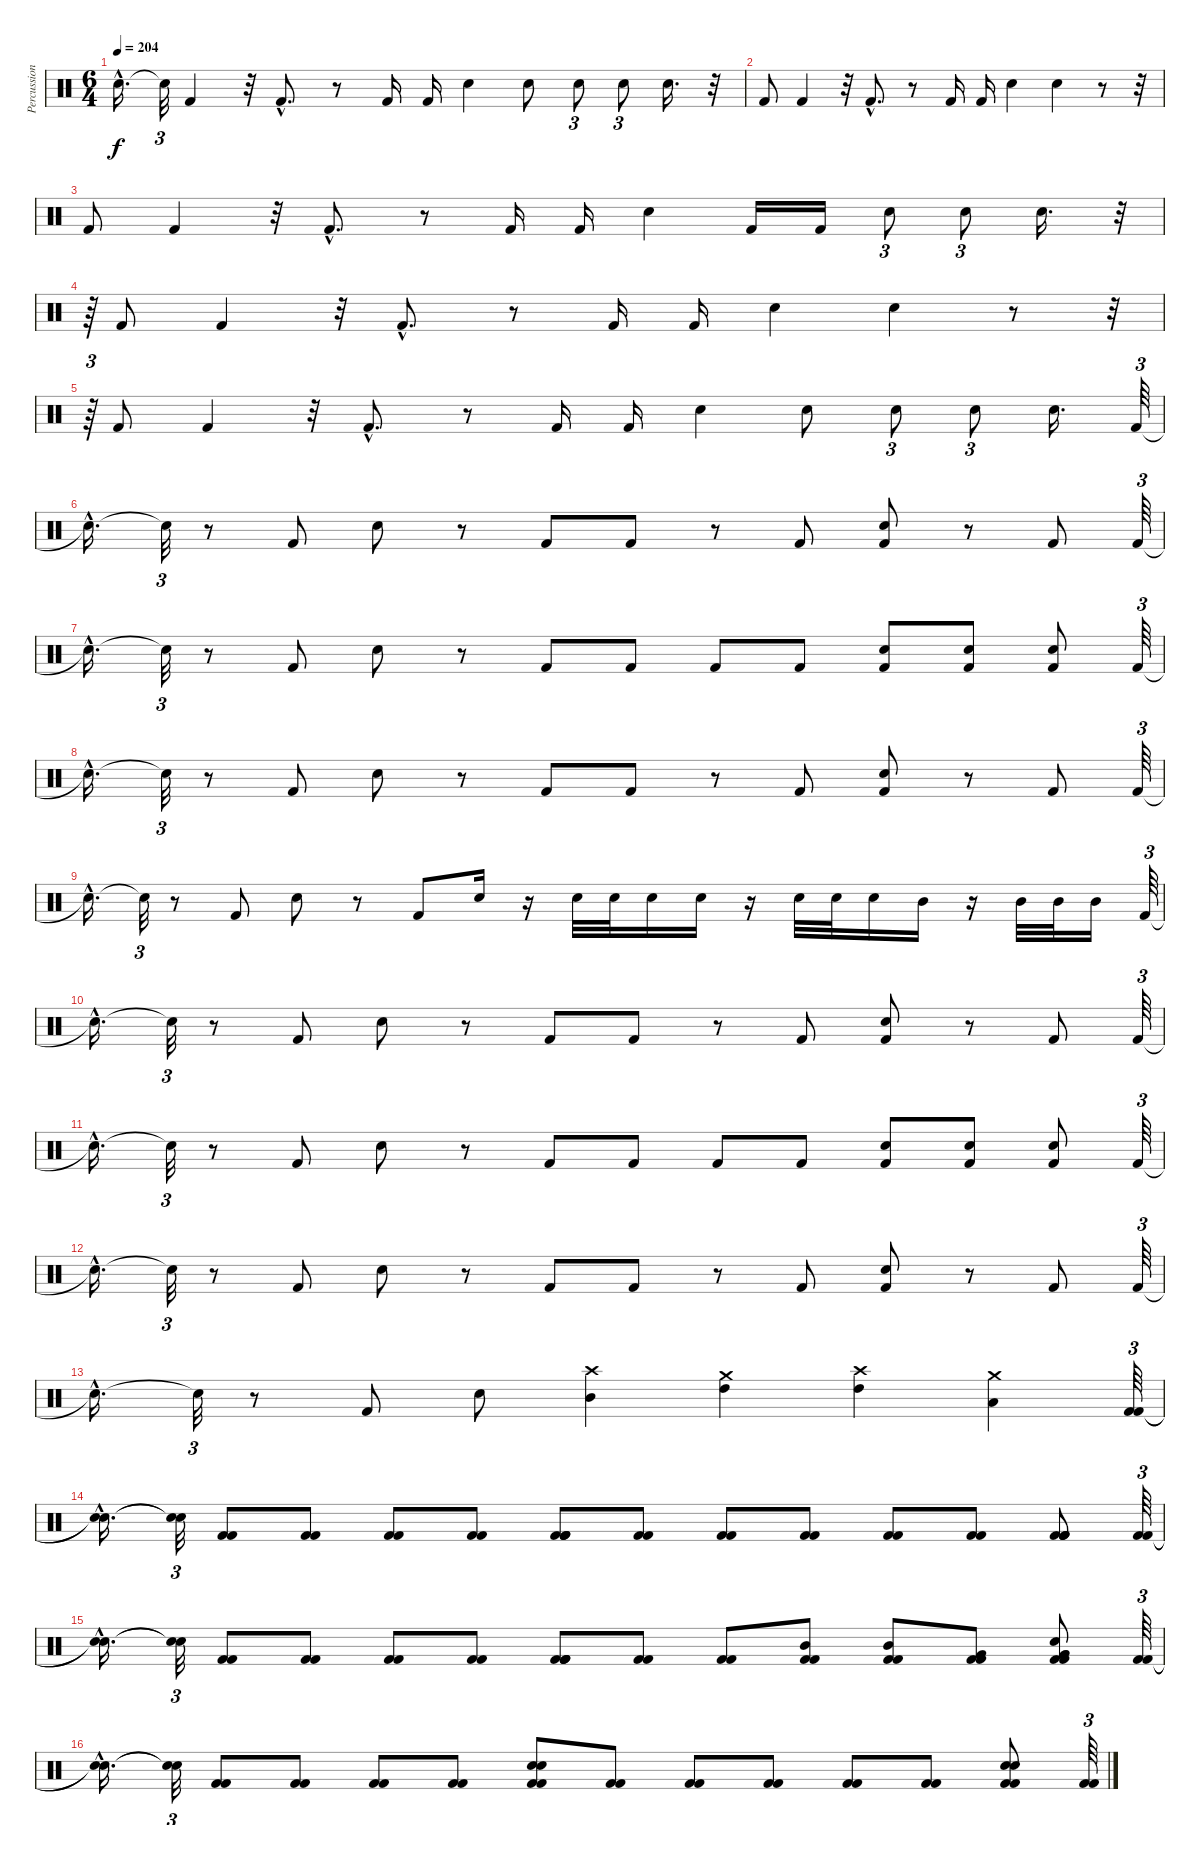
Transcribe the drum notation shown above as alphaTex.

\track ("Percussions" "Percussion") {instrument percussion}
\staff {score}
\articulation defaults
\ts (6 4)
\tempo 204
\clef neutral
\ks c "Snare (hit)"{hac t}.16{d dy f} "Snare (hit)"{t}.32{tu (3 2)} "Kick (hit) 2".4
r.32 "Kick (hit) 2"{hac}.8{d} r.8 "Kick (hit) 2".16 "Kick (hit) 2".16 "Electric Snare (hit)".4 "Electric Snare (hit)".8 "Electric Snare (hit)".8{tu (3 2)} "Electric Snare (hit)".8{tu (3 2)} "Electric Snare (hit)".16{d} r.32 |
"Kick (hit) 2".8 "Kick (hit) 2".4 r.32 "Kick (hit) 2"{hac}.8{d} r.8 "Kick (hit) 2".16 "Kick (hit) 2".16 "Electric Snare (hit)".4 "Electric Snare (hit)".4 r.8 r.32 |
"Kick (hit) 2".8 "Kick (hit) 2".4 r.32 "Kick (hit) 2"{hac}.8{d} r.8 "Kick (hit) 2".16 "Kick (hit) 2".16 "Electric Snare (hit)".4 "Kick (hit) 2".16 "Kick (hit) 2".16 "Electric Snare (hit)".8{tu (3 2)} "Electric Snare (hit)".8{tu (3 2)} "Electric Snare (hit)".16{d} r.32{tu (3 2)} |
r.64{tu (3 2)} "Kick (hit) 2".8 "Kick (hit) 2".4 r.32 "Kick (hit) 2"{hac}.8{d} r.8 "Kick (hit) 2".16 "Kick (hit) 2".16 "Electric Snare (hit)".4 "Electric Snare (hit)".4 r.8 r.32{tu (3 2)} |
r.64{tu (3 2)} "Kick (hit) 2".8 "Kick (hit) 2".4 r.32 "Kick (hit) 2"{hac}.8{d} r.8 "Kick (hit) 2".16 "Kick (hit) 2".16 "Electric Snare (hit)".4 "Electric Snare (hit)".8 "Electric Snare (hit)".8{tu (3 2)} "Electric Snare (hit)".8{tu (3 2)} "Electric Snare (hit)".16{d} "Kick (hit) 2".64{tu (3 2)} |
"Snare (hit)"{hac t}.16{d} "Snare (hit)"{t}.32{tu (3 2)} r.8 "Kick (hit) 2".8 "Electric Snare (hit)".8 r.8 "Kick (hit) 2".8 "Kick (hit) 2".8 r.8 "Kick (hit) 2".8 ("Electric Snare (hit)" "Kick (hit) 2").8 r.8 "Kick (hit) 2".8 "Kick (hit) 2".64{tu (3 2)} |
"Snare (hit)"{hac t}.16{d} "Snare (hit)"{t}.32{tu (3 2)} r.8 "Kick (hit) 2".8 "Electric Snare (hit)".8 r.8 "Kick (hit) 2".8 "Kick (hit) 2".8 "Kick (hit) 2".8 "Kick (hit) 2".8 ("Electric Snare (hit)" "Kick (hit) 2").8 ("Electric Snare (hit)" "Kick (hit) 2").8 ("Electric Snare (hit)" "Kick (hit) 2").8 "Kick (hit) 2".64{tu (3 2)} |
"Snare (hit)"{hac t}.16{d} "Snare (hit)"{t}.32{tu (3 2)} r.8 "Kick (hit) 2".8 "Electric Snare (hit)".8 r.8 "Kick (hit) 2".8 "Kick (hit) 2".8 r.8 "Kick (hit) 2".8 ("Electric Snare (hit)" "Kick (hit) 2").8 r.8 "Kick (hit) 2".8 "Kick (hit) 2".64{tu (3 2)} |
"Snare (hit)"{hac t}.16{d} "Snare (hit)"{t}.32{tu (3 2)} r.8 "Kick (hit) 2".8 "Electric Snare (hit)".8 r.8 "Kick (hit) 2".8 "Electric Snare (hit)".16 r.16 "Electric Snare (hit)".32 "Electric Snare (hit)".32 "Electric Snare (hit)".16 "Snare (hit) 2".16 r.16 "Snare (hit) 2".32 "Snare (hit) 2".32 "Snare (hit) 2".16 "Mid Tom (hit)".16 r.16 "Mid Tom (hit)".32 "Mid Tom (hit)".32 "Mid Tom (hit)".16 "Kick (hit) 2".64{tu (3 2)} |
"Snare (hit)"{hac t}.16{d} "Snare (hit)"{t}.32{tu (3 2)} r.8 "Kick (hit) 2".8 "Electric Snare (hit)".8 r.8 "Kick (hit) 2".8 "Kick (hit) 2".8 r.8 "Kick (hit) 2".8 ("Electric Snare (hit)" "Kick (hit) 2").8 r.8 "Kick (hit) 2".8 "Kick (hit) 2".64{tu (3 2)} |
"Snare (hit)"{hac t}.16{d} "Snare (hit)"{t}.32{tu (3 2)} r.8 "Kick (hit) 2".8 "Electric Snare (hit)".8 r.8 "Kick (hit) 2".8 "Kick (hit) 2".8 "Kick (hit) 2".8 "Kick (hit) 2".8 ("Electric Snare (hit)" "Kick (hit) 2").8 ("Electric Snare (hit)" "Kick (hit) 2").8 ("Electric Snare (hit)" "Kick (hit) 2").8 "Kick (hit) 2".64{tu (3 2)} |
"Snare (hit)"{hac t}.16{d} "Snare (hit)"{t}.32{tu (3 2)} r.8 "Kick (hit) 2".8 "Electric Snare (hit)".8 r.8 "Kick (hit) 2".8 "Kick (hit) 2".8 r.8 "Kick (hit) 2".8 ("Electric Snare (hit)" "Kick (hit) 2").8 r.8 "Kick (hit) 2".8 "Kick (hit) 2".64{tu (3 2)} |
"Snare (hit)"{hac t}.16{d} "Snare (hit)"{t}.32{tu (3 2)} r.8 "Kick (hit) 2".8 "Electric Snare (hit)".8 ("Crash high (hit)" "Mid Tom (hit)").4 ("Crash medium (hit)" "High Tom (hit)").4 ("Crash high (hit)" "High Tom (hit)").4 ("Crash medium (hit)" "Low Floor Tom (hit)").4 ("Kick (hit) 2" "Kick (hit) 2").64{tu (3 2)} |
("Snare (hit)"{hac t} "Snare (hit)"{hac t}).16{d} ("Snare (hit)"{t} "Snare (hit)"{t}).32{tu (3 2)} ("Kick (hit) 2" "Kick (hit) 2").8 ("Kick (hit) 2" "Kick (hit) 2").8 ("Kick (hit) 2" "Kick (hit) 2").8 ("Kick (hit) 2" "Kick (hit) 2").8 ("Kick (hit) 2" "Kick (hit) 2" "Kick (hit) 2" "Kick (hit) 2").8 ("Kick (hit) 2" "Kick (hit) 2").8 ("Kick (hit) 2" "Kick (hit) 2").8 ("Kick (hit) 2" "Kick (hit) 2").8 ("Kick (hit) 2" "Kick (hit) 2").8 ("Kick (hit) 2" "Kick (hit) 2").8 ("Kick (hit) 2" "Kick (hit) 2" "Kick (hit) 2" "Kick (hit) 2").8 ("Kick (hit) 2" "Kick (hit) 2").64{tu (3 2)} |
("Snare (hit)"{hac t} "Snare (hit)"{hac t}).16{d} ("Snare (hit)"{t} "Snare (hit)"{t}).32{tu (3 2)} ("Kick (hit) 2" "Kick (hit) 2").8 ("Kick (hit) 2" "Kick (hit) 2").8 ("Kick (hit) 2" "Kick (hit) 2").8 ("Kick (hit) 2" "Kick (hit) 2").8 ("Kick (hit) 2" "Kick (hit) 2" "Kick (hit) 2" "Kick (hit) 2").8 ("Kick (hit) 2" "Kick (hit) 2").8 ("Kick (hit) 2" "Kick (hit) 2").8 ("Mid Tom (hit)" "Kick (hit) 2" "Kick (hit) 2").8 ("Mid Tom (hit)" "Kick (hit) 2" "Kick (hit) 2").8 ("Very Low Tom (hit)" "Kick (hit) 2" "Kick (hit) 2").8 ("Electric Snare (hit)" "Very Low Tom (hit)" "Very Low Tom (hit)" "Kick (hit) 2" "Kick (hit) 2").8 ("Kick (hit) 2" "Kick (hit) 2").64{tu (3 2)} |
("Snare (hit)"{hac t} "Snare (hit)"{hac t}).16{d} ("Snare (hit)"{t} "Snare (hit)"{t}).32{tu (3 2)} ("Kick (hit) 2" "Kick (hit) 2").8 ("Kick (hit) 2" "Kick (hit) 2").8 ("Kick (hit) 2" "Kick (hit) 2").8 ("Kick (hit) 2" "Kick (hit) 2").8 ("Electric Snare (hit)" "Electric Snare (hit)" "Kick (hit) 2" "Kick (hit) 2").8 ("Kick (hit) 2" "Kick (hit) 2").8 ("Kick (hit) 2" "Kick (hit) 2").8 ("Kick (hit) 2" "Kick (hit) 2").8 ("Kick (hit) 2" "Kick (hit) 2").8 ("Kick (hit) 2" "Kick (hit) 2").8 ("Electric Snare (hit)" "Electric Snare (hit)" "Kick (hit) 2" "Kick (hit) 2").8 ("Kick (hit) 2" "Kick (hit) 2").64{tu (3 2)}
